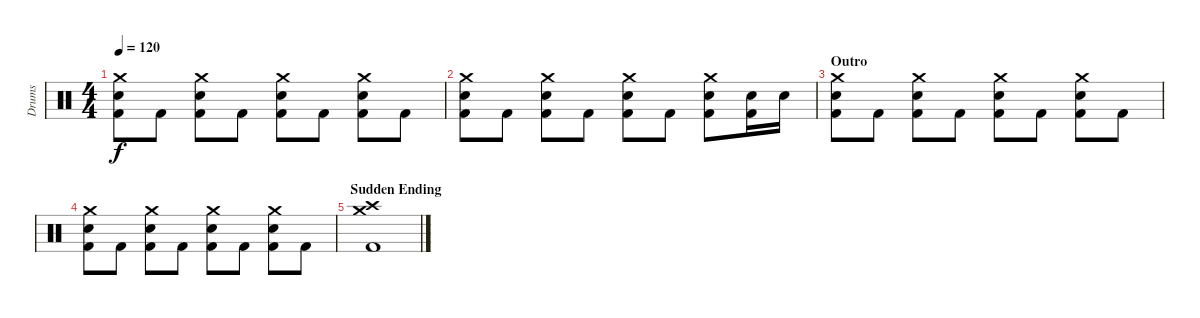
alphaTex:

\track ("Drums" "Drums") {instrument percussion}
\staff {score}
\articulation defaults
\ts (4 4)
\tempo 120
\clef neutral
\ks c
("Crash medium (hit)" "Snare (hit) 2" "Kick (hit) 2").8{dy f} "Kick (hit) 2".8 ("Crash medium (hit)" "Snare (hit) 2" "Kick (hit) 2").8 "Kick (hit) 2".8 ("Crash medium (hit)" "Snare (hit) 2" "Kick (hit) 2").8 "Kick (hit) 2".8 ("Crash medium (hit)" "Snare (hit) 2" "Kick (hit) 2").8 "Kick (hit) 2".8 |
("Crash medium (hit)" "Snare (hit) 2" "Kick (hit) 2").8 "Kick (hit) 2".8 ("Crash medium (hit)" "Snare (hit) 2" "Kick (hit) 2").8 "Kick (hit) 2".8 ("Crash medium (hit)" "Snare (hit) 2" "Kick (hit) 2").8 "Kick (hit) 2".8 ("Crash medium (hit)" "Snare (hit) 2" "Kick (hit) 2").8 ("Snare (hit) 2" "Kick (hit) 2").16 "Snare (hit) 2".16 |
\section ("" "Outro")
("Crash medium (hit)" "Snare (hit) 2" "Kick (hit) 2").8 "Kick (hit) 2".8 ("Crash medium (hit)" "Snare (hit) 2" "Kick (hit) 2").8 "Kick (hit) 2".8 ("Crash medium (hit)" "Snare (hit) 2" "Kick (hit) 2").8 "Kick (hit) 2".8 ("Crash medium (hit)" "Snare (hit) 2" "Kick (hit) 2").8 "Kick (hit) 2".8 |
("Crash medium (hit)" "Snare (hit) 2" "Kick (hit) 2").8 "Kick (hit) 2".8 ("Crash medium (hit)" "Snare (hit) 2" "Kick (hit) 2").8 "Kick (hit) 2".8 ("Crash medium (hit)" "Snare (hit) 2" "Kick (hit) 2").8 "Kick (hit) 2".8 ("Crash medium (hit)" "Snare (hit) 2" "Kick (hit) 2").8 "Kick (hit) 2".8 |
\section ("" "Sudden Ending")
("Crash medium (hit)" "Crash high (hit)" "Kick (hit) 2").1
